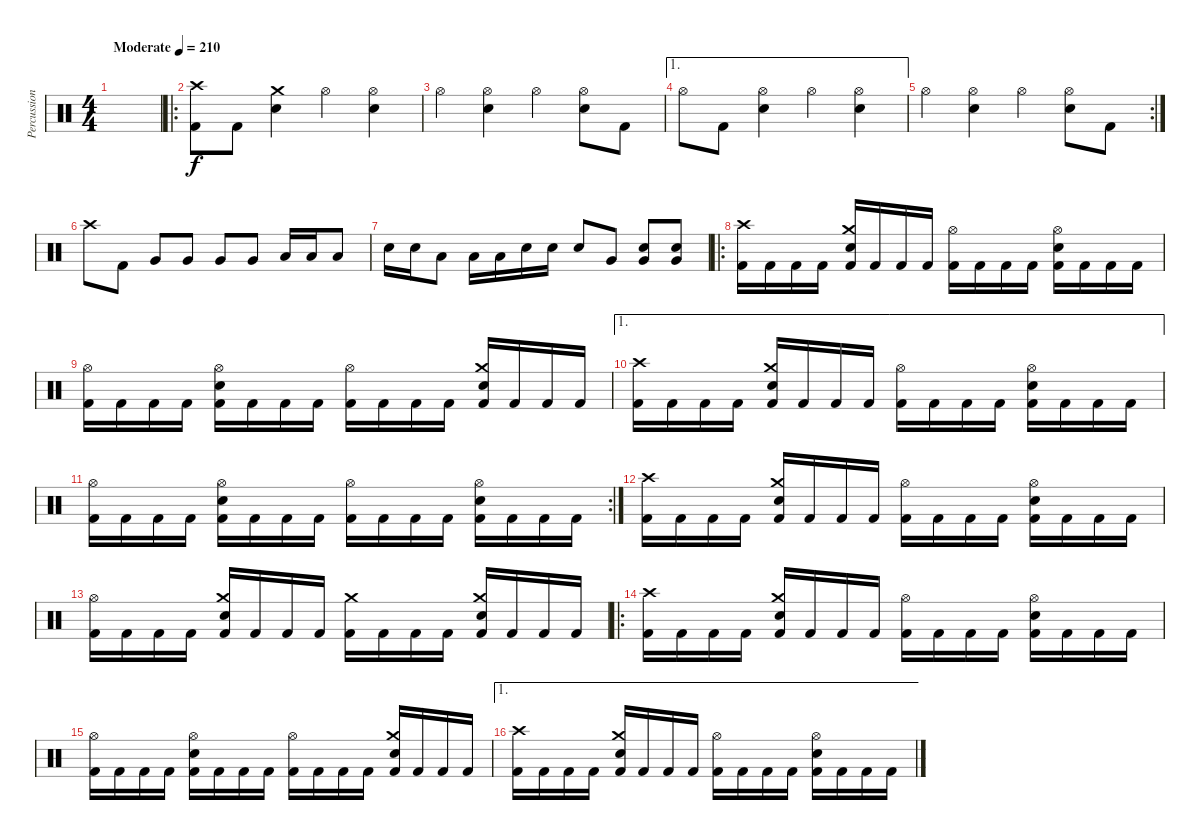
\track ("Percussion" "Percussion") {instrument percussion}
\staff
\articulation defaults
\ts (4 4)
\tempo (210 "Moderate")
\clef neutral
\ks c
|
\ro
("Crash high (hit)" "Kick (hit) 2").8 "Kick (hit) 2".8 ("Crash medium (hit)" "Electric Snare (hit)").4 "Hi-Hat (open)".4 ("Hi-Hat (open)" "Electric Snare (hit)").4 |
"Hi-Hat (open)".4 ("Hi-Hat (open)" "Electric Snare (hit)").4 "Hi-Hat (open)".4 ("Hi-Hat (open)" "Electric Snare (hit)").8 "Kick (hit) 2".8 |
\ae 1 "Hi-Hat (open)".8 "Kick (hit) 2".8
("Hi-Hat (open)" "Electric Snare (hit)").4 "Hi-Hat (open)".4 ("Hi-Hat (open)" "Electric Snare (hit)").4 |
\rc 2 "Hi-Hat (open)".4
("Hi-Hat (open)" "Electric Snare (hit)").4 "Hi-Hat (open)".4 ("Hi-Hat (open)" "Electric Snare (hit)").8 "Kick (hit) 2".8 |
"Crash high (hit)".8 "Kick (hit) 2".8 "Very Low Tom (hit)".8 "Very Low Tom (hit)".8 "Very Low Tom (hit)".8 "Very Low Tom (hit)".8 "Low Tom (hit)".16 "Low Tom (hit)".16 "Low Tom (hit)".8 |
"Electric Snare (hit)".16 "Electric Snare (hit)".16 "Low Tom (hit)".8 "Low Tom (hit)".16 "Low Tom (hit)".16 "Electric Snare (hit)".16 "Electric Snare (hit)".16 "Electric Snare (hit)".8 "Very Low Tom (hit)".8 ("Very Low Tom (hit)" "Electric Snare (hit)").8 ("Very Low Tom (hit)" "Electric Snare (hit)").8 |
\ro
("Crash high (hit)" "Kick (hit) 2").16 "Kick (hit) 2".16 "Kick (hit) 2".16 "Kick (hit) 2".16 ("Crash medium (hit)" "Electric Snare (hit)" "Kick (hit) 2").16 "Kick (hit) 2".16 "Kick (hit) 2".16 "Kick (hit) 2".16 ("Hi-Hat (open)" "Kick (hit) 2").16 "Kick (hit) 2".16 "Kick (hit) 2".16 "Kick (hit) 2".16 ("Hi-Hat (open)" "Electric Snare (hit)" "Kick (hit) 2").16 "Kick (hit) 2".16 "Kick (hit) 2".16 "Kick (hit) 2".16 |
("Hi-Hat (open)" "Kick (hit) 2").16 "Kick (hit) 2".16 "Kick (hit) 2".16 "Kick (hit) 2".16 ("Hi-Hat (open)" "Electric Snare (hit)" "Kick (hit) 2").16 "Kick (hit) 2".16 "Kick (hit) 2".16 "Kick (hit) 2".16 ("Hi-Hat (open)" "Kick (hit) 2").16 "Kick (hit) 2".16 "Kick (hit) 2".16 "Kick (hit) 2".16 ("Crash medium (hit)" "Electric Snare (hit)" "Kick (hit) 2").16 "Kick (hit) 2".16 "Kick (hit) 2".16 "Kick (hit) 2".16 |
\ae 1
("Crash high (hit)" "Kick (hit) 2").16 "Kick (hit) 2".16 "Kick (hit) 2".16 "Kick (hit) 2".16 ("Crash medium (hit)" "Electric Snare (hit)" "Kick (hit) 2").16 "Kick (hit) 2".16 "Kick (hit) 2".16 "Kick (hit) 2".16 ("Hi-Hat (open)" "Kick (hit) 2").16 "Kick (hit) 2".16 "Kick (hit) 2".16 "Kick (hit) 2".16 ("Hi-Hat (open)" "Electric Snare (hit)" "Kick (hit) 2").16 "Kick (hit) 2".16 "Kick (hit) 2".16 "Kick (hit) 2".16 |
\rc 2
("Hi-Hat (open)" "Kick (hit) 2").16 "Kick (hit) 2".16 "Kick (hit) 2".16 "Kick (hit) 2".16 ("Hi-Hat (open)" "Electric Snare (hit)" "Kick (hit) 2").16 "Kick (hit) 2".16 "Kick (hit) 2".16 "Kick (hit) 2".16 ("Hi-Hat (open)" "Kick (hit) 2").16 "Kick (hit) 2".16 "Kick (hit) 2".16 "Kick (hit) 2".16 ("Hi-Hat (open)" "Electric Snare (hit)" "Kick (hit) 2").16 "Kick (hit) 2".16 "Kick (hit) 2".16 "Kick (hit) 2".16 |
("Crash high (hit)" "Kick (hit) 2").16 "Kick (hit) 2".16 "Kick (hit) 2".16 "Kick (hit) 2".16 ("Crash medium (hit)" "Electric Snare (hit)" "Kick (hit) 2").16 "Kick (hit) 2".16 "Kick (hit) 2".16 "Kick (hit) 2".16 ("Hi-Hat (open)" "Kick (hit) 2").16 "Kick (hit) 2".16 "Kick (hit) 2".16 "Kick (hit) 2".16 ("Hi-Hat (open)" "Electric Snare (hit)" "Kick (hit) 2").16 "Kick (hit) 2".16 "Kick (hit) 2".16 "Kick (hit) 2".16 |
("Hi-Hat (open)" "Kick (hit) 2").16 "Kick (hit) 2".16 "Kick (hit) 2".16 "Kick (hit) 2".16 ("Crash medium (hit)" "Electric Snare (hit)" "Kick (hit) 2").16 "Kick (hit) 2".16 "Kick (hit) 2".16 "Kick (hit) 2".16 ("Crash medium (hit)" "Kick (hit) 2").16 "Kick (hit) 2".16 "Kick (hit) 2".16 "Kick (hit) 2".16 ("Crash medium (hit)" "Electric Snare (hit)" "Kick (hit) 2").16 "Kick (hit) 2".16 "Kick (hit) 2".16 "Kick (hit) 2".16 |
\ro
("Crash high (hit)" "Kick (hit) 2").16 "Kick (hit) 2".16 "Kick (hit) 2".16 "Kick (hit) 2".16 ("Crash medium (hit)" "Electric Snare (hit)" "Kick (hit) 2").16 "Kick (hit) 2".16 "Kick (hit) 2".16 "Kick (hit) 2".16 ("Hi-Hat (open)" "Kick (hit) 2").16 "Kick (hit) 2".16 "Kick (hit) 2".16 "Kick (hit) 2".16 ("Hi-Hat (open)" "Electric Snare (hit)" "Kick (hit) 2").16 "Kick (hit) 2".16 "Kick (hit) 2".16 "Kick (hit) 2".16 |
("Hi-Hat (open)" "Kick (hit) 2").16 "Kick (hit) 2".16 "Kick (hit) 2".16 "Kick (hit) 2".16 ("Hi-Hat (open)" "Electric Snare (hit)" "Kick (hit) 2").16 "Kick (hit) 2".16 "Kick (hit) 2".16 "Kick (hit) 2".16 ("Hi-Hat (open)" "Kick (hit) 2").16 "Kick (hit) 2".16 "Kick (hit) 2".16 "Kick (hit) 2".16 ("Crash medium (hit)" "Electric Snare (hit)" "Kick (hit) 2").16 "Kick (hit) 2".16 "Kick (hit) 2".16 "Kick (hit) 2".16 |
\ae 1
("Crash high (hit)" "Kick (hit) 2").16 "Kick (hit) 2".16 "Kick (hit) 2".16 "Kick (hit) 2".16 ("Crash medium (hit)" "Electric Snare (hit)" "Kick (hit) 2").16 "Kick (hit) 2".16 "Kick (hit) 2".16 "Kick (hit) 2".16 ("Hi-Hat (open)" "Kick (hit) 2").16 "Kick (hit) 2".16 "Kick (hit) 2".16 "Kick (hit) 2".16 ("Hi-Hat (open)" "Electric Snare (hit)" "Kick (hit) 2").16 "Kick (hit) 2".16 "Kick (hit) 2".16 "Kick (hit) 2".16
